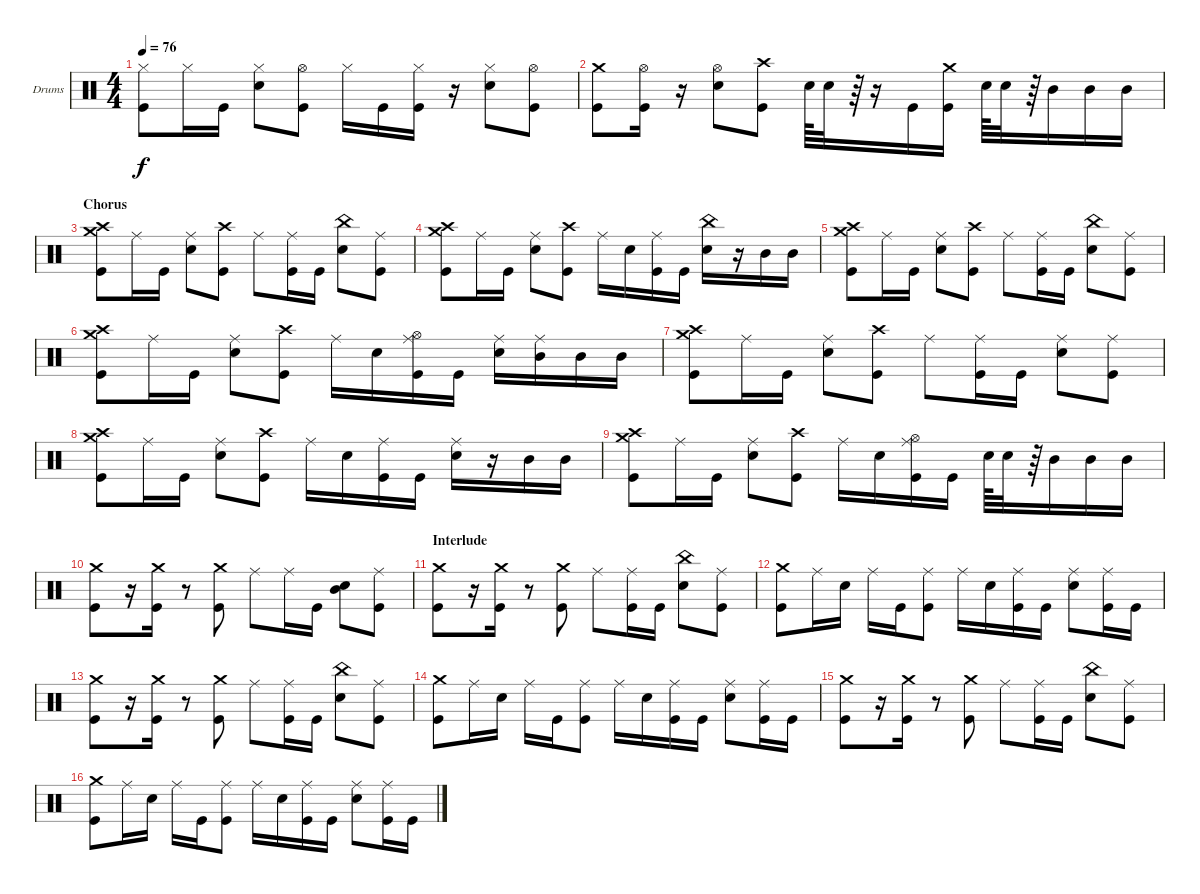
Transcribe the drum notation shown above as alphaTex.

\defaultSystemsLayout 4
\bracketExtendMode nobrackets
\firstSystemTrackNameOrientation horizontal
\otherSystemsTrackNameOrientation horizontal
\track ("Dave Abbruzzese" "Drums") {solo instrument percussion}
\staff {score}
\articulation defaults
\ts (4 4)
\tempo 76
\clef neutral
\ks c
("Kick (hit)" "Hi-Hat (closed)").8{dy f} "Hi-Hat (closed)".16 "Kick (hit)".16 ("Snare (hit) 2" "Hi-Hat (closed)").8 ("Kick (hit)" "Hi-Hat (open)").8 "Hi-Hat (closed)".16 "Kick (hit)".16 ("Kick (hit)" "Hi-Hat (closed)").16 r.16 ("Snare (hit) 2" "Hi-Hat (closed)").8 ("Kick (hit)" "Hi-Hat (open)").8 |
("Kick (hit)" "Crash medium (hit)").8 ("Kick (hit)" "Hi-Hat (open)").16 r.16 ("Snare (hit) 2" "Hi-Hat (open)").8 ("Kick (hit)" "Crash high (hit)").8 "Snare (hit) 2".64 "Snare (hit) 2".32 r.64 r.16 "Kick (hit)".16 ("Kick (hit)" "Crash medium (hit)").16 "Snare (hit) 2".64 "Snare (hit) 2".32 r.64 "Mid Tom (hit)".16 "Mid Tom (hit)".16 "Mid Tom (hit)".16 |
\section ("" "Chorus")
("Crash high (hit)" "Kick (hit)" "Crash medium (hit)").8 "Ride (middle)".16 "Kick (hit)".16 ("Snare (hit) 2" "Ride (middle)").8 ("Kick (hit)" "Crash high (hit)").8 "Ride (middle)".8 ("Kick (hit)" "Ride (middle)").16 "Kick (hit)".16 ("Snare (hit) 2" "China (hit)").8 ("Kick (hit)" "Ride (middle)").8 |
("Crash high (hit)" "Kick (hit)" "Crash medium (hit)").8 "Ride (middle)".16 "Kick (hit)".16 ("Snare (hit) 2" "Ride (middle)").8 ("Kick (hit)" "Crash high (hit)").8 "Ride (middle)".16 "Snare (hit) 2".16 ("Kick (hit)" "Ride (middle)").16 "Kick (hit)".16 ("Snare (hit) 2" "China (hit)").16 r.16 "Mid Tom (hit)".16 "Mid Tom (hit)".16 |
("Crash high (hit)" "Kick (hit)" "Crash medium (hit)").8 "Ride (middle)".16 "Kick (hit)".16 ("Snare (hit) 2" "Ride (middle)").8 ("Kick (hit)" "Crash high (hit)").8 "Ride (middle)".8 ("Kick (hit)" "Ride (middle)").16 "Kick (hit)".16 ("Snare (hit) 2" "China (hit)").8 ("Kick (hit)" "Ride (middle)").8 |
("Crash high (hit)" "Kick (hit)" "Crash medium (hit)").8 "Ride (middle)".16 "Kick (hit)".16 ("Snare (hit) 2" "Ride (middle)").8 ("Kick (hit)" "Crash high (hit)").8 "Ride (middle)".16 "Snare (hit) 2".16 ("Hi-Hat (open)" "Kick (hit)" "Ride (middle)").16 "Kick (hit)".16 ("Snare (hit) 2" "Ride (middle)").16 ("Mid Tom (hit)" "Ride (middle)").16 "Mid Tom (hit)".16 "Mid Tom (hit)".16 |
("Crash high (hit)" "Kick (hit)" "Crash medium (hit)").8 "Ride (middle)".16 "Kick (hit)".16 ("Snare (hit) 2" "Ride (middle)").8 ("Kick (hit)" "Crash high (hit)").8 "Ride (middle)".8 ("Kick (hit)" "Ride (middle)").16 "Kick (hit)".16 ("Snare (hit) 2" "Ride (middle)").8 ("Kick (hit)" "Ride (middle)").8 |
("Crash high (hit)" "Kick (hit)" "Crash medium (hit)").8 "Ride (middle)".16 "Kick (hit)".16 ("Snare (hit) 2" "Ride (middle)").8 ("Kick (hit)" "Crash high (hit)").8 "Ride (middle)".16 "Snare (hit) 2".16 ("Kick (hit)" "Ride (middle)").16 "Kick (hit)".16 ("Snare (hit) 2" "Ride (middle)").16 r.16 "Mid Tom (hit)".16 "Mid Tom (hit)".16 |
("Crash high (hit)" "Kick (hit)" "Crash medium (hit)").8 "Ride (middle)".16 "Kick (hit)".16 ("Snare (hit) 2" "Ride (middle)").8 ("Kick (hit)" "Crash high (hit)").8 "Ride (middle)".16 "Snare (hit) 2".16 ("Hi-Hat (open)" "Kick (hit)" "Ride (middle)").16 "Kick (hit)".16 "Snare (hit) 2".64 "Snare (hit) 2".32 r.64 "Mid Tom (hit)".16 "Mid Tom (hit)".16 "Mid Tom (hit)".16 |
("Kick (hit)" "Crash medium (hit)").8 r.16 ("Kick (hit)" "Crash medium (hit)").16 r.8 ("Kick (hit)" "Crash medium (hit)").8 "Ride (middle)".8 "Ride (middle)".16 "Kick (hit)".16 ("Mid Tom (hit)" "Snare (hit) 2").8 ("Kick (hit)" "Ride (middle)").8 |
\section ("" "Interlude")
("Kick (hit)" "Crash medium (hit)").8 r.16 ("Kick (hit)" "Crash medium (hit)").16 r.8 ("Kick (hit)" "Crash medium (hit)").8 "Ride (middle)".8 ("Kick (hit)" "Ride (middle)").16 "Kick (hit)".16 ("Snare (hit) 2" "China (hit)").8 ("Kick (hit)" "Ride (middle)").8 |
("Kick (hit)" "Crash medium (hit)").8 "Ride (middle)".16 "Snare (hit) 2".16 "Ride (middle)".16 "Kick (hit)".16 ("Kick (hit)" "Ride (middle)").8 "Ride (middle)".16 "Snare (hit) 2".16 ("Kick (hit)" "Ride (middle)").16 "Kick (hit)".16 ("Snare (hit) 2" "Ride (middle)").8 ("Kick (hit)" "Ride (middle)").16 "Kick (hit)".16 |
("Kick (hit)" "Crash medium (hit)").8 r.16 ("Kick (hit)" "Crash medium (hit)").16 r.8 ("Kick (hit)" "Crash medium (hit)").8 "Ride (middle)".8 ("Kick (hit)" "Ride (middle)").16 "Kick (hit)".16 ("Snare (hit) 2" "China (hit)").8 ("Kick (hit)" "Ride (middle)").8 |
("Kick (hit)" "Crash medium (hit)").8 "Ride (middle)".16 "Snare (hit) 2".16 "Ride (middle)".16 "Kick (hit)".16 ("Kick (hit)" "Ride (middle)").8 "Ride (middle)".16 "Snare (hit) 2".16 ("Kick (hit)" "Ride (middle)").16 "Kick (hit)".16 ("Snare (hit) 2" "Ride (middle)").8 ("Kick (hit)" "Ride (middle)").16 "Kick (hit)".16 |
("Kick (hit)" "Crash medium (hit)").8 r.16 ("Kick (hit)" "Crash medium (hit)").16 r.8 ("Kick (hit)" "Crash medium (hit)").8 "Ride (middle)".8 ("Kick (hit)" "Ride (middle)").16 "Kick (hit)".16 ("Snare (hit) 2" "China (hit)").8 ("Kick (hit)" "Ride (middle)").8 |
("Kick (hit)" "Crash medium (hit)").8 "Ride (middle)".16 "Snare (hit) 2".16 "Ride (middle)".16 "Kick (hit)".16 ("Kick (hit)" "Ride (middle)").8 "Ride (middle)".16 "Snare (hit) 2".16 ("Kick (hit)" "Ride (middle)").16 "Kick (hit)".16 ("Snare (hit) 2" "Ride (middle)").8 ("Kick (hit)" "Ride (middle)").16 "Kick (hit)".16
